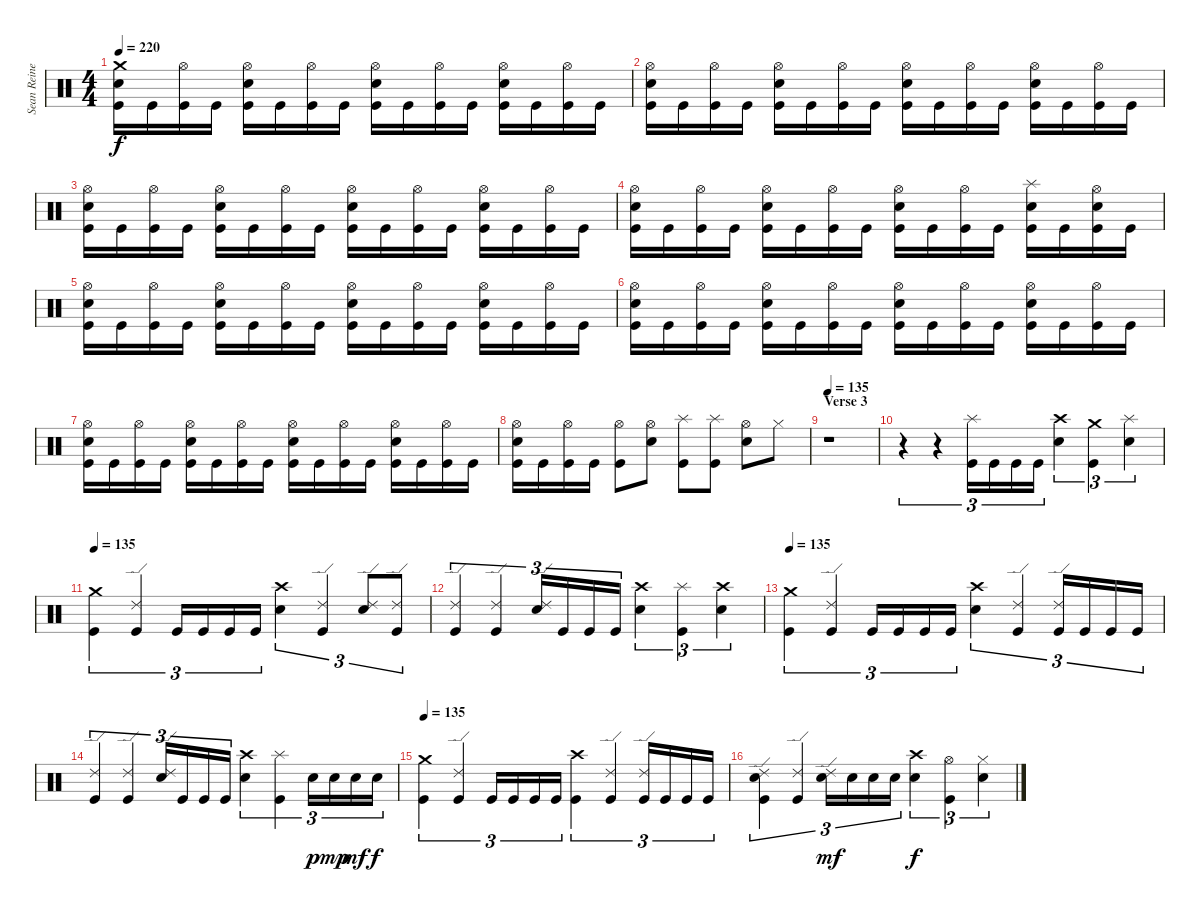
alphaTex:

\track ("Sean Reinert " "Sean Reine") {instrument percussion}
\staff {score}
\articulation defaults
\ts (4 4)
\tempo 220
\clef neutral
\ks c
("Crash medium (hit)" "Electric Snare (hit)" "Kick (hit)").16{dy f} "Kick (hit)".16 ("Hi-Hat (open)" "Kick (hit)").16 "Kick (hit)".16 ("Hi-Hat (open)" "Electric Snare (hit)" "Kick (hit)").16 "Kick (hit)".16 ("Hi-Hat (open)" "Kick (hit)").16 "Kick (hit)".16 ("Hi-Hat (open)" "Electric Snare (hit)" "Kick (hit)").16 "Kick (hit)".16 ("Hi-Hat (open)" "Kick (hit)").16 "Kick (hit)".16 ("Hi-Hat (open)" "Electric Snare (hit)" "Kick (hit)").16 "Kick (hit)".16 ("Hi-Hat (open)" "Kick (hit)").16 "Kick (hit)".16 |
("Hi-Hat (open)" "Electric Snare (hit)" "Kick (hit)").16 "Kick (hit)".16 ("Hi-Hat (open)" "Kick (hit)").16 "Kick (hit)".16 ("Hi-Hat (open)" "Electric Snare (hit)" "Kick (hit)").16 "Kick (hit)".16 ("Hi-Hat (open)" "Kick (hit)").16 "Kick (hit)".16 ("Hi-Hat (open)" "Electric Snare (hit)" "Kick (hit)").16 "Kick (hit)".16 ("Hi-Hat (open)" "Kick (hit)").16 "Kick (hit)".16 ("Hi-Hat (open)" "Electric Snare (hit)" "Kick (hit)").16 "Kick (hit)".16 ("Hi-Hat (open)" "Kick (hit)").16 "Kick (hit)".16 |
("Hi-Hat (open)" "Electric Snare (hit)" "Kick (hit)").16 "Kick (hit)".16 ("Hi-Hat (open)" "Kick (hit)").16 "Kick (hit)".16 ("Hi-Hat (open)" "Electric Snare (hit)" "Kick (hit)").16 "Kick (hit)".16 ("Hi-Hat (open)" "Kick (hit)").16 "Kick (hit)".16 ("Hi-Hat (open)" "Electric Snare (hit)" "Kick (hit)").16 "Kick (hit)".16 ("Hi-Hat (open)" "Kick (hit)").16 "Kick (hit)".16 ("Hi-Hat (open)" "Electric Snare (hit)" "Kick (hit)").16 "Kick (hit)".16 ("Hi-Hat (open)" "Kick (hit)").16 "Kick (hit)".16 |
("Hi-Hat (open)" "Electric Snare (hit)" "Kick (hit)").16 "Kick (hit)".16 ("Hi-Hat (open)" "Kick (hit)").16 "Kick (hit)".16 ("Hi-Hat (open)" "Electric Snare (hit)" "Kick (hit)").16 "Kick (hit)".16 ("Hi-Hat (open)" "Kick (hit)").16 "Kick (hit)".16 ("Hi-Hat (open)" "Electric Snare (hit)" "Kick (hit)").16 "Kick (hit)".16 ("Hi-Hat (open)" "Kick (hit)").16 "Kick (hit)".16 ("Splash (hit)" "Electric Snare (hit)" "Kick (hit)").16 "Kick (hit)".16 ("Hi-Hat (open)" "Electric Snare (hit)" "Kick (hit)").16 "Kick (hit)".16 |
("Hi-Hat (open)" "Electric Snare (hit)" "Kick (hit)").16 "Kick (hit)".16 ("Hi-Hat (open)" "Kick (hit)").16 "Kick (hit)".16 ("Hi-Hat (open)" "Electric Snare (hit)" "Kick (hit)").16 "Kick (hit)".16 ("Hi-Hat (open)" "Kick (hit)").16 "Kick (hit)".16 ("Hi-Hat (open)" "Electric Snare (hit)" "Kick (hit)").16 "Kick (hit)".16 ("Hi-Hat (open)" "Kick (hit)").16 "Kick (hit)".16 ("Hi-Hat (open)" "Electric Snare (hit)" "Kick (hit)").16 "Kick (hit)".16 ("Hi-Hat (open)" "Kick (hit)").16 "Kick (hit)".16 |
("Hi-Hat (open)" "Electric Snare (hit)" "Kick (hit)").16 "Kick (hit)".16 ("Hi-Hat (open)" "Kick (hit)").16 "Kick (hit)".16 ("Hi-Hat (open)" "Electric Snare (hit)" "Kick (hit)").16 "Kick (hit)".16 ("Hi-Hat (open)" "Kick (hit)").16 "Kick (hit)".16 ("Hi-Hat (open)" "Electric Snare (hit)" "Kick (hit)").16 "Kick (hit)".16 ("Hi-Hat (open)" "Kick (hit)").16 "Kick (hit)".16 ("Hi-Hat (open)" "Electric Snare (hit)" "Kick (hit)").16 "Kick (hit)".16 ("Hi-Hat (open)" "Kick (hit)").16 "Kick (hit)".16 |
("Hi-Hat (open)" "Electric Snare (hit)" "Kick (hit)").16 "Kick (hit)".16 ("Hi-Hat (open)" "Kick (hit)").16 "Kick (hit)".16 ("Hi-Hat (open)" "Electric Snare (hit)" "Kick (hit)").16 "Kick (hit)".16 ("Hi-Hat (open)" "Kick (hit)").16 "Kick (hit)".16 ("Hi-Hat (open)" "Electric Snare (hit)" "Kick (hit)").16 "Kick (hit)".16 ("Hi-Hat (open)" "Kick (hit)").16 "Kick (hit)".16 ("Hi-Hat (open)" "Electric Snare (hit)" "Kick (hit)").16 "Kick (hit)".16 ("Hi-Hat (open)" "Kick (hit)").16 "Kick (hit)".16 |
("Hi-Hat (open)" "Electric Snare (hit)" "Kick (hit)").16 "Kick (hit)".16 ("Hi-Hat (open)" "Kick (hit)").16 "Kick (hit)".16 ("Hi-Hat (open)" "Kick (hit)").8 ("Hi-Hat (open)" "Electric Snare (hit)").8 ("Splash (hit)" "Kick (hit)").8 ("Splash (hit)" "Kick (hit)").8 ("Hi-Hat (open)" "Electric Snare (hit)").8 "Hi-Hat (closed)".8 |
\section ("" "Verse 3")
\tempo 135
r.1 |
r.4{tu (3 2)} r.4{tu (3 2)} ("Splash (hit)" "Kick (hit)").16{tu (3 2)} "Kick (hit)".16{tu (3 2)} "Kick (hit)".16{tu (3 2)} "Kick (hit)".16{tu (3 2)} ("Crash high (hit)" "Electric Snare (hit)").4{tu (3 2)} ("Crash medium (hit)" "Kick (hit)").4{tu (3 2)} ("Splash (hit)" "Electric Snare (hit)").4{tu (3 2)} |
\tempo 135
("Crash medium (hit)" "Kick (hit)").4{tu (3 2)} ("Ride (edge) 2" "Kick (hit)").4{tu (3 2)} "Kick (hit)".16{tu (3 2)} "Kick (hit)".16{tu (3 2)} "Kick (hit)".16{tu (3 2)} "Kick (hit)".16{tu (3 2)} ("Crash high (hit)" "Electric Snare (hit)").4{tu (3 2)} ("Ride (edge) 2" "Kick (hit)").4{tu (3 2)} ("Ride (edge) 2" "Electric Snare (hit)").8{tu (3 2)} ("Ride (edge) 2" "Kick (hit)").8{tu (3 2)} |
("Ride (edge) 2" "Kick (hit)").4{tu (3 2)} ("Ride (edge) 2" "Kick (hit)").4{tu (3 2)} ("Ride (edge) 2" "Electric Snare (hit)").16{tu (3 2)} "Kick (hit)".16{tu (3 2)} "Kick (hit)".16{tu (3 2)} "Kick (hit)".16{tu (3 2)} ("Crash high (hit)" "Electric Snare (hit)").4{tu (3 2)} ("Splash (hit)" "Kick (hit)").4{tu (3 2)} ("Crash high (hit)" "Electric Snare (hit)").4{tu (3 2)} |
\tempo 135
("Crash medium (hit)" "Kick (hit)").4{tu (3 2)} ("Ride (edge) 2" "Kick (hit)").4{tu (3 2)} "Kick (hit)".16{tu (3 2)} "Kick (hit)".16{tu (3 2)} "Kick (hit)".16{tu (3 2)} "Kick (hit)".16{tu (3 2)} ("Crash high (hit)" "Electric Snare (hit)").4{tu (3 2)} ("Ride (edge) 2" "Kick (hit)").4{tu (3 2)} ("Ride (edge) 2" "Kick (hit)").16{tu (3 2)} "Kick (hit)".16{tu (3 2)} "Kick (hit)".16{tu (3 2)} "Kick (hit)".16{tu (3 2)} |
("Ride (edge) 2" "Kick (hit)").4{tu (3 2)} ("Ride (edge) 2" "Kick (hit)").4{tu (3 2)} ("Ride (edge) 2" "Electric Snare (hit)").16{tu (3 2)} "Kick (hit)".16{tu (3 2)} "Kick (hit)".16{tu (3 2)} "Kick (hit)".16{tu (3 2)} ("Crash high (hit)" "Electric Snare (hit)").4{tu (3 2)} ("Splash (hit)" "Kick (hit)").4{tu (3 2)} "Electric Snare (hit)".16{tu (3 2) dy p} "Electric Snare (hit)".16{tu (3 2) dy mp} "Electric Snare (hit)".16{tu (3 2) dy mf} "Electric Snare (hit)".16{tu (3 2) dy f} |
\tempo 135
("Crash medium (hit)" "Kick (hit)").4{tu (3 2)} ("Ride (edge) 2" "Kick (hit)").4{tu (3 2)} "Kick (hit)".16{tu (3 2)} "Kick (hit)".16{tu (3 2)} "Kick (hit)".16{tu (3 2)} "Kick (hit)".16{tu (3 2)} ("Crash high (hit)" "Kick (hit)").4{tu (3 2)} ("Ride (edge) 2" "Kick (hit)").4{tu (3 2)} ("Ride (edge) 2" "Kick (hit)").16{tu (3 2)} "Kick (hit)".16{tu (3 2)} "Kick (hit)".16{tu (3 2)} "Kick (hit)".16{tu (3 2)} |
("Ride (edge) 2" "Electric Snare (hit)" "Kick (hit)").4{tu (3 2)} ("Ride (edge) 2" "Kick (hit)").4{tu (3 2)} ("Ride (edge) 2" "Electric Snare (hit)").16{tu (3 2) dy mf} "Electric Snare (hit)".16{tu (3 2)} "Electric Snare (hit)".16{tu (3 2)} "Electric Snare (hit)".16{tu (3 2)} ("Crash high (hit)" "Electric Snare (hit)").4{tu (3 2) dy f} ("Hi-Hat (open)" "Kick (hit)").4{tu (3 2)} ("Hi-Hat (closed)" "Electric Snare (hit)").4{tu (3 2)}
